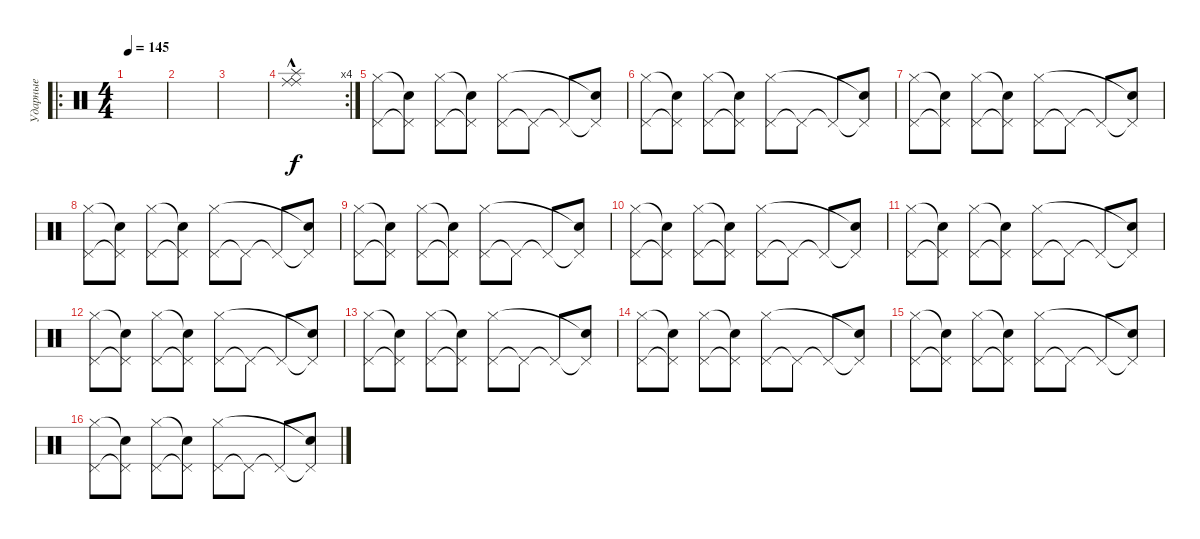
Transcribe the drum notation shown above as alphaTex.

\track ("Ударные" "Ударные") {instrument percussion}
\staff {score}
\articulation defaults
\ro
\ts (4 4)
\tempo 145
\clef neutral
\ks c
|
|
|
\rc 4
("Ride (middle)"{hac} "Ride (middle)"{hac} "Splash (hit)").1 |
("Pedal Hi-Hat (hit)" "Hi-Hat (closed)").8{dy f} ("Pedal Hi-Hat (hit)"{t} "Snare (hit)"{t}).8 ("Pedal Hi-Hat (hit)" "Hi-Hat (closed)").8 ("Pedal Hi-Hat (hit)"{t} "Snare (hit)"{t}).8 ("Pedal Hi-Hat (hit)" "Hi-Hat (closed)").8 "Pedal Hi-Hat (hit)"{t}.8 "Pedal Hi-Hat (hit)"{t}.8 ("Pedal Hi-Hat (hit)"{t} "Snare (hit)"{t}).8 |
("Pedal Hi-Hat (hit)" "Hi-Hat (closed)").8 ("Pedal Hi-Hat (hit)"{t} "Snare (hit)"{t}).8 ("Pedal Hi-Hat (hit)" "Hi-Hat (closed)").8 ("Pedal Hi-Hat (hit)"{t} "Snare (hit)"{t}).8 ("Pedal Hi-Hat (hit)" "Hi-Hat (closed)").8 "Pedal Hi-Hat (hit)"{t}.8 "Pedal Hi-Hat (hit)"{t}.8 ("Pedal Hi-Hat (hit)"{t} "Snare (hit)"{t}).8 |
("Pedal Hi-Hat (hit)" "Hi-Hat (closed)").8 ("Pedal Hi-Hat (hit)"{t} "Snare (hit)"{t}).8 ("Pedal Hi-Hat (hit)" "Hi-Hat (closed)").8 ("Pedal Hi-Hat (hit)"{t} "Snare (hit)"{t}).8 ("Pedal Hi-Hat (hit)" "Hi-Hat (closed)").8 "Pedal Hi-Hat (hit)"{t}.8 "Pedal Hi-Hat (hit)"{t}.8 ("Pedal Hi-Hat (hit)"{t} "Snare (hit)"{t}).8 |
("Pedal Hi-Hat (hit)" "Hi-Hat (closed)").8 ("Pedal Hi-Hat (hit)"{t} "Snare (hit)"{t}).8 ("Pedal Hi-Hat (hit)" "Hi-Hat (closed)").8 ("Pedal Hi-Hat (hit)"{t} "Snare (hit)"{t}).8 ("Pedal Hi-Hat (hit)" "Hi-Hat (closed)").8 "Pedal Hi-Hat (hit)"{t}.8 "Pedal Hi-Hat (hit)"{t}.8 ("Pedal Hi-Hat (hit)"{t} "Snare (hit)"{t}).8 |
("Pedal Hi-Hat (hit)" "Hi-Hat (closed)").8 ("Pedal Hi-Hat (hit)"{t} "Snare (hit)"{t}).8 ("Pedal Hi-Hat (hit)" "Hi-Hat (closed)").8 ("Pedal Hi-Hat (hit)"{t} "Snare (hit)"{t}).8 ("Pedal Hi-Hat (hit)" "Hi-Hat (closed)").8 "Pedal Hi-Hat (hit)"{t}.8 "Pedal Hi-Hat (hit)"{t}.8 ("Pedal Hi-Hat (hit)"{t} "Snare (hit)"{t}).8 |
("Pedal Hi-Hat (hit)" "Hi-Hat (closed)").8 ("Pedal Hi-Hat (hit)"{t} "Snare (hit)"{t}).8 ("Pedal Hi-Hat (hit)" "Hi-Hat (closed)").8 ("Pedal Hi-Hat (hit)"{t} "Snare (hit)"{t}).8 ("Pedal Hi-Hat (hit)" "Hi-Hat (closed)").8 "Pedal Hi-Hat (hit)"{t}.8 "Pedal Hi-Hat (hit)"{t}.8 ("Pedal Hi-Hat (hit)"{t} "Snare (hit)"{t}).8 |
("Pedal Hi-Hat (hit)" "Hi-Hat (closed)").8 ("Pedal Hi-Hat (hit)"{t} "Snare (hit)"{t}).8 ("Pedal Hi-Hat (hit)" "Hi-Hat (closed)").8 ("Pedal Hi-Hat (hit)"{t} "Snare (hit)"{t}).8 ("Pedal Hi-Hat (hit)" "Hi-Hat (closed)").8 "Pedal Hi-Hat (hit)"{t}.8 "Pedal Hi-Hat (hit)"{t}.8 ("Pedal Hi-Hat (hit)"{t} "Snare (hit)"{t}).8 |
("Pedal Hi-Hat (hit)" "Hi-Hat (closed)").8 ("Pedal Hi-Hat (hit)"{t} "Snare (hit)"{t}).8 ("Pedal Hi-Hat (hit)" "Hi-Hat (closed)").8 ("Pedal Hi-Hat (hit)"{t} "Snare (hit)"{t}).8 ("Pedal Hi-Hat (hit)" "Hi-Hat (closed)").8 "Pedal Hi-Hat (hit)"{t}.8 "Pedal Hi-Hat (hit)"{t}.8 ("Pedal Hi-Hat (hit)"{t} "Snare (hit)"{t}).8 |
("Pedal Hi-Hat (hit)" "Hi-Hat (closed)").8 ("Pedal Hi-Hat (hit)"{t} "Snare (hit)"{t}).8 ("Pedal Hi-Hat (hit)" "Hi-Hat (closed)").8 ("Pedal Hi-Hat (hit)"{t} "Snare (hit)"{t}).8 ("Pedal Hi-Hat (hit)" "Hi-Hat (closed)").8 "Pedal Hi-Hat (hit)"{t}.8 "Pedal Hi-Hat (hit)"{t}.8 ("Pedal Hi-Hat (hit)"{t} "Snare (hit)"{t}).8 |
("Pedal Hi-Hat (hit)" "Hi-Hat (closed)").8 ("Pedal Hi-Hat (hit)"{t} "Snare (hit)"{t}).8 ("Pedal Hi-Hat (hit)" "Hi-Hat (closed)").8 ("Pedal Hi-Hat (hit)"{t} "Snare (hit)"{t}).8 ("Pedal Hi-Hat (hit)" "Hi-Hat (closed)").8 "Pedal Hi-Hat (hit)"{t}.8 "Pedal Hi-Hat (hit)"{t}.8 ("Pedal Hi-Hat (hit)"{t} "Snare (hit)"{t}).8 |
("Pedal Hi-Hat (hit)" "Hi-Hat (closed)").8 ("Pedal Hi-Hat (hit)"{t} "Snare (hit)"{t}).8 ("Pedal Hi-Hat (hit)" "Hi-Hat (closed)").8 ("Pedal Hi-Hat (hit)"{t} "Snare (hit)"{t}).8 ("Pedal Hi-Hat (hit)" "Hi-Hat (closed)").8 "Pedal Hi-Hat (hit)"{t}.8 "Pedal Hi-Hat (hit)"{t}.8 ("Pedal Hi-Hat (hit)"{t} "Snare (hit)"{t}).8 |
("Pedal Hi-Hat (hit)" "Hi-Hat (closed)").8 ("Pedal Hi-Hat (hit)"{t} "Snare (hit)"{t}).8 ("Pedal Hi-Hat (hit)" "Hi-Hat (closed)").8 ("Pedal Hi-Hat (hit)"{t} "Snare (hit)"{t}).8 ("Pedal Hi-Hat (hit)" "Hi-Hat (closed)").8 "Pedal Hi-Hat (hit)"{t}.8 "Pedal Hi-Hat (hit)"{t}.8 ("Pedal Hi-Hat (hit)"{t} "Snare (hit)"{t}).8
